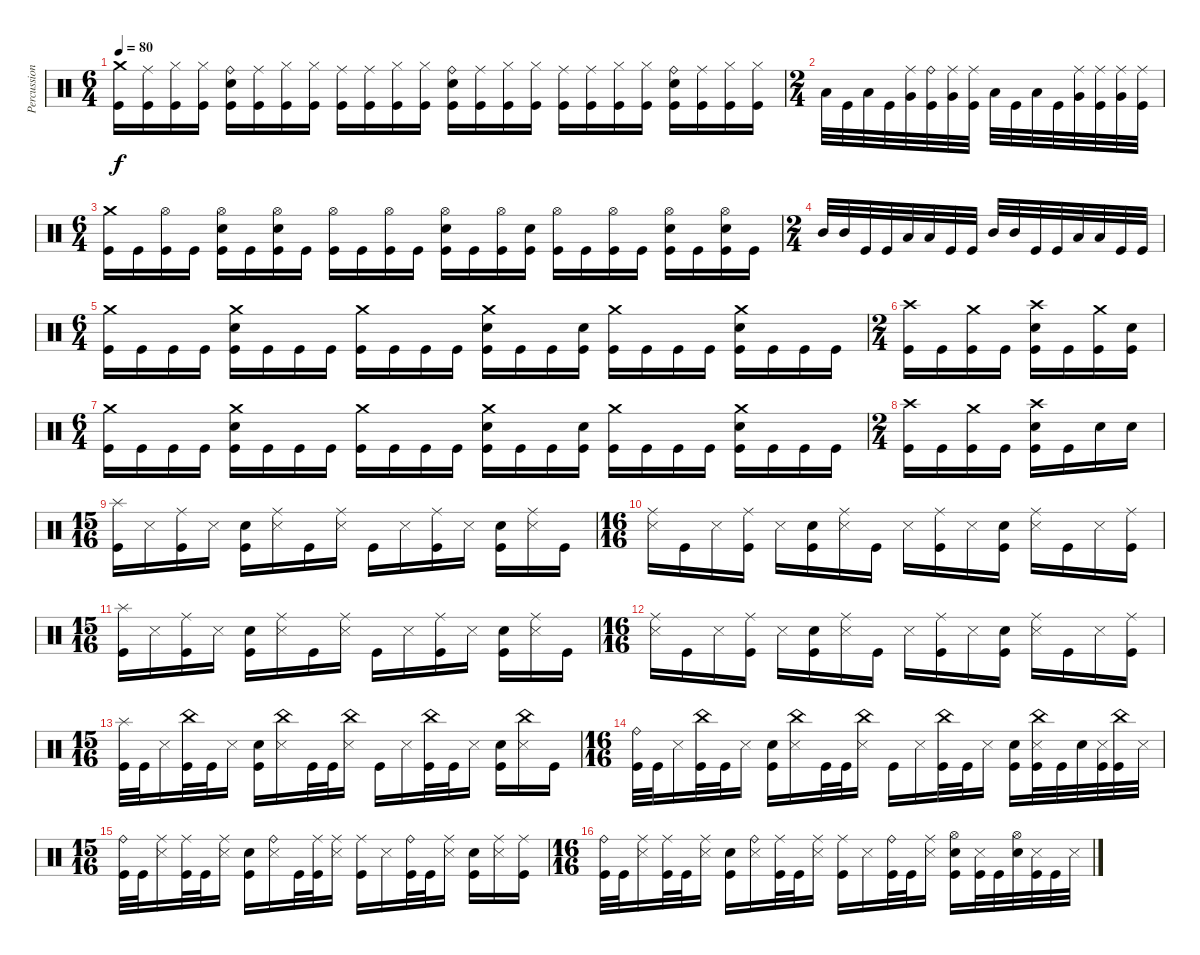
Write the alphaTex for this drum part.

\track ("Percussion" "Percussion") {instrument percussion}
\staff {score}
\articulation defaults
\ts (6 4)
\tempo 80
\clef neutral
\ks c
("Crash medium (hit)" "Kick (hit)").16{dy f} ("Ride (middle)" "Kick (hit)").16 ("Hi-Hat (closed)" "Kick (hit)").16 ("Hi-Hat (closed)" "Kick (hit)").16 ("Ride (bell)" "Electric Snare (hit)" "Kick (hit)").16 ("Ride (middle)" "Kick (hit)").16 ("Hi-Hat (closed)" "Kick (hit)").16 ("Hi-Hat (closed)" "Kick (hit)").16 ("Ride (middle)" "Kick (hit)").16 ("Ride (middle)" "Kick (hit)").16 ("Hi-Hat (closed)" "Kick (hit)").16 ("Hi-Hat (closed)" "Kick (hit)").16 ("Ride (bell)" "Electric Snare (hit)" "Kick (hit)").16 ("Ride (middle)" "Kick (hit)").16 ("Hi-Hat (closed)" "Kick (hit)").16 ("Hi-Hat (closed)" "Kick (hit)").16 ("Ride (middle)" "Kick (hit)").16 ("Ride (middle)" "Kick (hit)").16 ("Hi-Hat (closed)" "Kick (hit)").16 ("Hi-Hat (closed)" "Kick (hit)").16 ("Ride (bell)" "Electric Snare (hit)" "Kick (hit)").16 ("Ride (middle)" "Kick (hit)").16 ("Hi-Hat (closed)" "Kick (hit)").16 ("Hi-Hat (closed)" "Kick (hit)").16 |
\ts (2 4)
"Low Tom (hit)".32 "Kick (hit)".32 "Low Tom (hit)".32 "Kick (hit)".32 ("Ride (middle)" "Very Low Tom (hit)").32 ("Ride (bell)" "Kick (hit)").32 ("Ride (middle)" "Very Low Tom (hit)").32 ("Ride (middle)" "Kick (hit)").32 "Low Tom (hit)".32 "Kick (hit)".32 "Low Tom (hit)".32 "Kick (hit)".32 ("Ride (middle)" "Very Low Tom (hit)").32 ("Ride (middle)" "Kick (hit)").32 ("Ride (middle)" "Very Low Tom (hit)").32 ("Ride (middle)" "Kick (hit)").32 |
\ts (6 4)
("Crash medium (hit)" "Kick (hit)").16 "Kick (hit)".16 ("Hi-Hat (open)" "Kick (hit)").16 "Kick (hit)".16 ("Hi-Hat (open)" "Electric Snare (hit)" "Kick (hit)").16 "Kick (hit)".16 ("Hi-Hat (open)" "Electric Snare (hit)" "Kick (hit)").16 "Kick (hit)".16 ("Hi-Hat (open)" "Kick (hit)").16 "Kick (hit)".16 ("Hi-Hat (open)" "Kick (hit)").16 "Kick (hit)".16 ("Hi-Hat (open)" "Electric Snare (hit)" "Kick (hit)").16 "Kick (hit)".16 ("Hi-Hat (open)" "Kick (hit)").16 ("Electric Snare (hit)" "Kick (hit)").16 ("Hi-Hat (open)" "Kick (hit)").16 "Kick (hit)".16 ("Hi-Hat (open)" "Kick (hit)").16 "Kick (hit)".16 ("Hi-Hat (open)" "Electric Snare (hit)" "Kick (hit)").16 "Kick (hit)".16 ("Hi-Hat (open)" "Electric Snare (hit)" "Kick (hit)").16 "Kick (hit)".16 |
\ts (2 4)
"Mid Tom (hit)".32 "Mid Tom (hit)".32 "Kick (hit)".32 "Kick (hit)".32 "Low Tom (hit)".32 "Low Tom (hit)".32 "Kick (hit)".32 "Kick (hit)".32 "Mid Tom (hit)".32 "Mid Tom (hit)".32 "Kick (hit)".32 "Kick (hit)".32 "Low Tom (hit)".32 "Low Tom (hit)".32 "Kick (hit)".32 "Kick (hit)".32 |
\ts (6 4)
("Crash medium (hit)" "Kick (hit)").16 "Kick (hit)".16 "Kick (hit)".16 "Kick (hit)".16 ("Crash medium (hit)" "Electric Snare (hit)" "Kick (hit)").16 "Kick (hit)".16 "Kick (hit)".16 "Kick (hit)".16 ("Crash medium (hit)" "Kick (hit)").16 "Kick (hit)".16 "Kick (hit)".16 "Kick (hit)".16 ("Crash medium (hit)" "Electric Snare (hit)" "Kick (hit)").16 "Kick (hit)".16 "Kick (hit)".16 ("Electric Snare (hit)" "Kick (hit)").16 ("Crash medium (hit)" "Kick (hit)").16 "Kick (hit)".16 "Kick (hit)".16 "Kick (hit)".16 ("Crash medium (hit)" "Electric Snare (hit)" "Kick (hit)").16 "Kick (hit)".16 "Kick (hit)".16 "Kick (hit)".16 |
\ts (2 4)
("Crash high (hit)" "Kick (hit)").16 "Kick (hit)".16 ("Crash medium (hit)" "Kick (hit)").16 "Kick (hit)".16 ("Crash high (hit)" "Electric Snare (hit)" "Kick (hit)").16 "Kick (hit)".16 ("Crash medium (hit)" "Kick (hit)").16 ("Electric Snare (hit)" "Kick (hit)").16 |
\ts (6 4)
("Crash medium (hit)" "Kick (hit)").16 "Kick (hit)".16 "Kick (hit)".16 "Kick (hit)".16 ("Crash medium (hit)" "Electric Snare (hit)" "Kick (hit)").16 "Kick (hit)".16 "Kick (hit)".16 "Kick (hit)".16 ("Crash medium (hit)" "Kick (hit)").16 "Kick (hit)".16 "Kick (hit)".16 "Kick (hit)".16 ("Crash medium (hit)" "Electric Snare (hit)" "Kick (hit)").16 "Kick (hit)".16 "Kick (hit)".16 ("Electric Snare (hit)" "Kick (hit)").16 ("Crash medium (hit)" "Kick (hit)").16 "Kick (hit)".16 "Kick (hit)".16 "Kick (hit)".16 ("Crash medium (hit)" "Electric Snare (hit)" "Kick (hit)").16 "Kick (hit)".16 "Kick (hit)".16 "Kick (hit)".16 |
\ts (2 4)
("Crash high (hit)" "Kick (hit)").16 "Kick (hit)".16 ("Crash medium (hit)" "Kick (hit)").16 "Kick (hit)".16 ("Crash high (hit)" "Electric Snare (hit)" "Kick (hit)").16 "Kick (hit)".16 "Electric Snare (hit)".16 "Electric Snare (hit)".16 |
\ts (15 16)
("Splash (hit)" "Kick (hit)").16 "Snare (side stick) 3".16 ("Ride (middle)" "Kick (hit)").16 "Snare (side stick) 3".16 ("Electric Snare (hit)" "Kick (hit)").16 ("Ride (middle)" "Snare (side stick) 3").16 "Kick (hit)".16 ("Ride (middle)" "Snare (side stick) 3").16 "Kick (hit)".16 "Snare (side stick) 3".16 ("Ride (middle)" "Kick (hit)").16 "Snare (side stick) 3".16 ("Electric Snare (hit)" "Kick (hit)").16 ("Ride (middle)" "Snare (side stick) 3").16 "Kick (hit)".16 |
\ts (16 16)
("Ride (middle)" "Snare (side stick) 3").16 "Kick (hit)".16 "Snare (side stick) 3".16 ("Ride (middle)" "Kick (hit)").16 "Snare (side stick) 3".16 ("Electric Snare (hit)" "Kick (hit)").16 ("Ride (middle)" "Snare (side stick) 3").16 "Kick (hit)".16 "Snare (side stick) 3".16 ("Ride (middle)" "Kick (hit)").16 "Snare (side stick) 3".16 ("Electric Snare (hit)" "Kick (hit)").16 ("Ride (middle)" "Snare (side stick) 3").16 "Kick (hit)".16 "Snare (side stick) 3".16 ("Ride (middle)" "Kick (hit)").16 |
\ts (15 16)
("Splash (hit)" "Kick (hit)").16 "Snare (side stick) 3".16 ("Ride (middle)" "Kick (hit)").16 "Snare (side stick) 3".16 ("Electric Snare (hit)" "Kick (hit)").16 ("Ride (middle)" "Snare (side stick) 3").16 "Kick (hit)".16 ("Ride (middle)" "Snare (side stick) 3").16 "Kick (hit)".16 "Snare (side stick) 3".16 ("Ride (middle)" "Kick (hit)").16 "Snare (side stick) 3".16 ("Electric Snare (hit)" "Kick (hit)").16 ("Ride (middle)" "Snare (side stick) 3").16 "Kick (hit)".16 |
\ts (16 16)
("Ride (middle)" "Snare (side stick) 3").16 "Kick (hit)".16 "Snare (side stick) 3".16 ("Ride (middle)" "Kick (hit)").16 "Snare (side stick) 3".16 ("Electric Snare (hit)" "Kick (hit)").16 ("Ride (middle)" "Snare (side stick) 3").16 "Kick (hit)".16 "Snare (side stick) 3".16 ("Ride (middle)" "Kick (hit)").16 "Snare (side stick) 3".16 ("Electric Snare (hit)" "Kick (hit)").16 ("Ride (middle)" "Snare (side stick) 3").16 "Kick (hit)".16 "Snare (side stick) 3".16 ("Ride (middle)" "Kick (hit)").16 |
\ts (15 16)
("Splash (hit)" "Kick (hit)").32 "Kick (hit)".32 "Snare (side stick) 3".16 ("China (hit)" "Kick (hit)").32 "Kick (hit)".32 "Snare (side stick) 3".16 ("Electric Snare (hit)" "Kick (hit)").16 ("China (hit)" "Snare (side stick) 3").16 "Kick (hit)".32 "Kick (hit)".32 ("China (hit)" "Snare (side stick) 3").16 "Kick (hit)".16 "Snare (side stick) 3".16 ("China (hit)" "Kick (hit)").32 "Kick (hit)".32 "Snare (side stick) 3".16 ("Electric Snare (hit)" "Kick (hit)").16 ("China (hit)" "Snare (side stick) 3").16 "Kick (hit)".16 |
\ts (16 16)
("Ride (bell)" "Kick (hit)").32 "Kick (hit)".32 "Snare (side stick) 3".16 ("China (hit)" "Kick (hit)").32 "Kick (hit)".32 "Snare (side stick) 3".16 ("Electric Snare (hit)" "Kick (hit)").16 ("China (hit)" "Snare (side stick) 3").16 "Kick (hit)".32 "Kick (hit)".32 ("China (hit)" "Snare (side stick) 3").16 "Kick (hit)".16 "Snare (side stick) 3".16 ("China (hit)" "Kick (hit)").32 "Kick (hit)".32 "Snare (side stick) 3".16 ("Electric Snare (hit)" "Kick (hit)").16 ("China (hit)" "Snare (side stick) 3" "Kick (hit)").32 "Kick (hit)".32 "Electric Snare (hit)".32 ("Snare (side stick) 3" "Kick (hit)").32 ("China (hit)" "Kick (hit)").32 "Snare (side stick) 3".32 |
\ts (15 16)
("Ride (bell)" "Kick (hit)").32 "Kick (hit)".32 ("Ride (middle)" "Snare (side stick) 3").16 ("Ride (middle)" "Kick (hit)").32 "Kick (hit)".32 ("Ride (middle)" "Snare (side stick) 3").16 ("Electric Snare (hit)" "Kick (hit)").16 ("Ride (bell)" "Snare (side stick) 3").16 "Kick (hit)".32 ("Ride (middle)" "Kick (hit)").32 ("Ride (middle)" "Snare (side stick) 3").16 ("Ride (middle)" "Kick (hit)").16 "Snare (side stick) 3".16 ("Ride (bell)" "Kick (hit)").32 "Kick (hit)".32 ("Ride (middle)" "Snare (side stick) 3").16 ("Electric Snare (hit)" "Kick (hit)").16 ("Ride (middle)" "Snare (side stick) 3").16 ("Ride (middle)" "Kick (hit)").16 |
\ts (16 16)
("Ride (bell)" "Kick (hit)").32 "Kick (hit)".32 ("Ride (middle)" "Snare (side stick) 3").16 ("Ride (middle)" "Kick (hit)").32 "Kick (hit)".32 ("Ride (middle)" "Snare (side stick) 3").16 ("Electric Snare (hit)" "Kick (hit)").16 ("Ride (bell)" "Snare (side stick) 3").16 ("Ride (middle)" "Kick (hit)").32 "Kick (hit)".32 ("Ride (middle)" "Snare (side stick) 3").16 ("Ride (middle)" "Kick (hit)").16 "Snare (side stick) 3".16 ("Ride (bell)" "Kick (hit)").32 "Kick (hit)".32 ("Ride (middle)" "Snare (side stick) 3").16 ("Hi-Hat (open)" "Electric Snare (hit)" "Kick (hit)").16 ("Snare (side stick) 3" "Kick (hit)").32 "Kick (hit)".32 ("Hi-Hat (open)" "Electric Snare (hit)").32 ("Snare (side stick) 3" "Kick (hit)").32 "Kick (hit)".32 "Snare (side stick) 3".32
